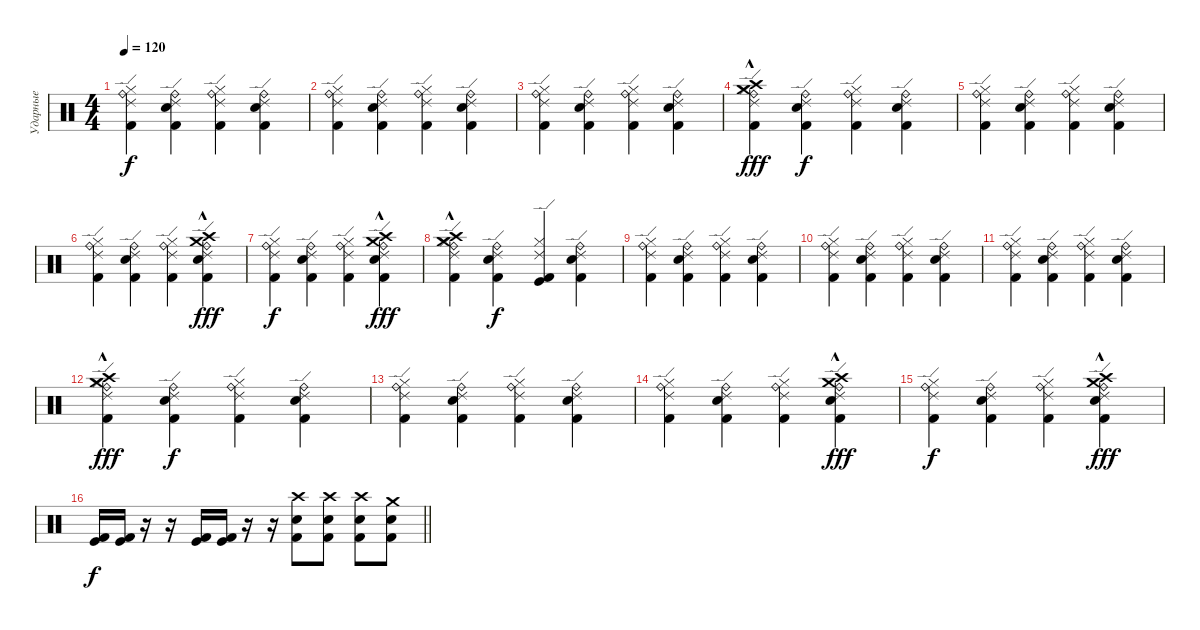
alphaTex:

\track ("Ударные" "Ударные") {instrument percussion}
\staff {score}
\articulation defaults
\ts (4 4)
\tempo 120
\clef neutral
\ks c
("Ride (bell)" "Ride (edge) 2" "Hi-Hat (closed)" "Kick (hit) 2").4{dy f} ("Ride (bell)" "Ride (edge) 2" "Snare (hit) 2" "Kick (hit) 2").4 ("Ride (bell)" "Ride (edge) 2" "Hi-Hat (closed)" "Kick (hit) 2").4 ("Ride (bell)" "Ride (edge) 2" "Snare (hit) 2" "Kick (hit) 2").4 |
("Ride (bell)" "Ride (edge) 2" "Hi-Hat (closed)" "Kick (hit) 2").4 ("Ride (bell)" "Ride (edge) 2" "Snare (hit) 2" "Kick (hit) 2").4 ("Ride (bell)" "Ride (edge) 2" "Hi-Hat (closed)" "Kick (hit) 2").4 ("Ride (bell)" "Ride (edge) 2" "Snare (hit) 2" "Kick (hit) 2").4 |
("Ride (bell)" "Ride (edge) 2" "Hi-Hat (closed)" "Kick (hit) 2").4 ("Ride (bell)" "Ride (edge) 2" "Snare (hit) 2" "Kick (hit) 2").4 ("Ride (bell)" "Ride (edge) 2" "Hi-Hat (closed)" "Kick (hit) 2").4 ("Ride (bell)" "Ride (edge) 2" "Snare (hit) 2" "Kick (hit) 2").4 |
("Ride (bell)" "Ride (edge) 2" "Crash high (hit)"{hac} "Crash medium (hit)"{hac} "Hi-Hat (closed)" "Kick (hit) 2").4{dy fff} ("Ride (bell)" "Ride (edge) 2" "Snare (hit) 2" "Kick (hit) 2").4{dy f} ("Ride (bell)" "Ride (edge) 2" "Hi-Hat (closed)" "Kick (hit) 2").4 ("Ride (bell)" "Ride (edge) 2" "Snare (hit) 2" "Kick (hit) 2").4 |
("Ride (bell)" "Ride (edge) 2" "Hi-Hat (closed)" "Kick (hit) 2").4 ("Ride (bell)" "Ride (edge) 2" "Snare (hit) 2" "Kick (hit) 2").4 ("Ride (bell)" "Ride (edge) 2" "Hi-Hat (closed)" "Kick (hit) 2").4 ("Ride (bell)" "Ride (edge) 2" "Snare (hit) 2" "Kick (hit) 2").4 |
("Ride (bell)" "Ride (edge) 2" "Hi-Hat (closed)" "Kick (hit) 2").4 ("Ride (bell)" "Ride (edge) 2" "Snare (hit) 2" "Kick (hit) 2").4 ("Ride (bell)" "Ride (edge) 2" "Hi-Hat (closed)" "Kick (hit) 2").4 ("Ride (bell)" "Ride (edge) 2" "Crash high (hit)"{hac} "Crash medium (hit)"{hac} "Snare (hit) 2" "Kick (hit) 2").4{dy fff} |
("Ride (bell)" "Ride (edge) 2" "Hi-Hat (closed)" "Kick (hit) 2").4{dy f} ("Ride (bell)" "Ride (edge) 2" "Snare (hit) 2" "Kick (hit) 2").4 ("Ride (bell)" "Ride (edge) 2" "Hi-Hat (closed)" "Kick (hit) 2").4 ("Ride (bell)" "Ride (edge) 2" "Crash high (hit)"{hac} "Crash medium (hit)"{hac} "Snare (hit) 2" "Kick (hit) 2").4{dy fff} |
("Ride (bell)" "Ride (edge) 2" "Crash high (hit)"{hac} "Crash medium (hit)"{hac} "Hi-Hat (closed)" "Kick (hit) 2").4 ("Ride (bell)" "Ride (edge) 2" "Snare (hit) 2" "Kick (hit) 2").4{dy f} ("Kick (hit)" "Ride (edge) 2" "Hi-Hat (closed)" "Kick (hit) 2").4 ("Ride (bell)" "Ride (edge) 2" "Snare (hit) 2" "Kick (hit) 2").4 |
("Ride (bell)" "Ride (edge) 2" "Hi-Hat (closed)" "Kick (hit) 2").4 ("Ride (bell)" "Ride (edge) 2" "Snare (hit) 2" "Kick (hit) 2").4 ("Ride (bell)" "Ride (edge) 2" "Hi-Hat (closed)" "Kick (hit) 2").4 ("Ride (bell)" "Ride (edge) 2" "Snare (hit) 2" "Kick (hit) 2").4 |
("Ride (bell)" "Ride (edge) 2" "Hi-Hat (closed)" "Kick (hit) 2").4 ("Ride (bell)" "Ride (edge) 2" "Snare (hit) 2" "Kick (hit) 2").4 ("Ride (bell)" "Ride (edge) 2" "Hi-Hat (closed)" "Kick (hit) 2").4 ("Ride (bell)" "Ride (edge) 2" "Snare (hit) 2" "Kick (hit) 2").4 |
("Ride (bell)" "Ride (edge) 2" "Hi-Hat (closed)" "Kick (hit) 2").4 ("Ride (bell)" "Ride (edge) 2" "Snare (hit) 2" "Kick (hit) 2").4 ("Ride (bell)" "Ride (edge) 2" "Hi-Hat (closed)" "Kick (hit) 2").4 ("Ride (bell)" "Ride (edge) 2" "Snare (hit) 2" "Kick (hit) 2").4 |
("Ride (bell)" "Ride (edge) 2" "Crash high (hit)"{hac} "Crash medium (hit)"{hac} "Hi-Hat (closed)" "Kick (hit) 2").4{dy fff} ("Ride (bell)" "Ride (edge) 2" "Snare (hit) 2" "Kick (hit) 2").4{dy f} ("Ride (bell)" "Ride (edge) 2" "Hi-Hat (closed)" "Kick (hit) 2").4 ("Ride (bell)" "Ride (edge) 2" "Snare (hit) 2" "Kick (hit) 2").4 |
("Ride (bell)" "Ride (edge) 2" "Hi-Hat (closed)" "Kick (hit) 2").4 ("Ride (bell)" "Ride (edge) 2" "Snare (hit) 2" "Kick (hit) 2").4 ("Ride (bell)" "Ride (edge) 2" "Hi-Hat (closed)" "Kick (hit) 2").4 ("Ride (bell)" "Ride (edge) 2" "Snare (hit) 2" "Kick (hit) 2").4 |
("Ride (bell)" "Ride (edge) 2" "Hi-Hat (closed)" "Kick (hit) 2").4 ("Ride (bell)" "Ride (edge) 2" "Snare (hit) 2" "Kick (hit) 2").4 ("Ride (bell)" "Ride (edge) 2" "Hi-Hat (closed)" "Kick (hit) 2").4 ("Ride (bell)" "Ride (edge) 2" "Crash high (hit)"{hac} "Crash medium (hit)"{hac} "Snare (hit) 2" "Kick (hit) 2").4{dy fff} |
("Ride (bell)" "Ride (edge) 2" "Hi-Hat (closed)" "Kick (hit) 2").4{dy f} ("Ride (bell)" "Ride (edge) 2" "Snare (hit) 2" "Kick (hit) 2").4 ("Ride (bell)" "Ride (edge) 2" "Hi-Hat (closed)" "Kick (hit) 2").4 ("Ride (bell)" "Ride (edge) 2" "Crash high (hit)"{hac} "Crash medium (hit)"{hac} "Snare (hit) 2" "Kick (hit) 2").4{dy fff} |
\barLineRight lightlight
("Kick (hit)" "Kick (hit) 2").16{dy f} ("Kick (hit)" "Kick (hit) 2").16 r.16 r.16 ("Kick (hit)" "Kick (hit) 2").16 ("Kick (hit)" "Kick (hit) 2").16 r.16 r.16 ("Crash high (hit)" "Snare (hit) 2" "Kick (hit) 2").8 ("Crash high (hit)" "Snare (hit) 2" "Kick (hit) 2").8 ("Crash high (hit)" "Snare (hit) 2" "Kick (hit) 2").8 ("Crash medium (hit)" "Snare (hit) 2" "Kick (hit) 2").8
